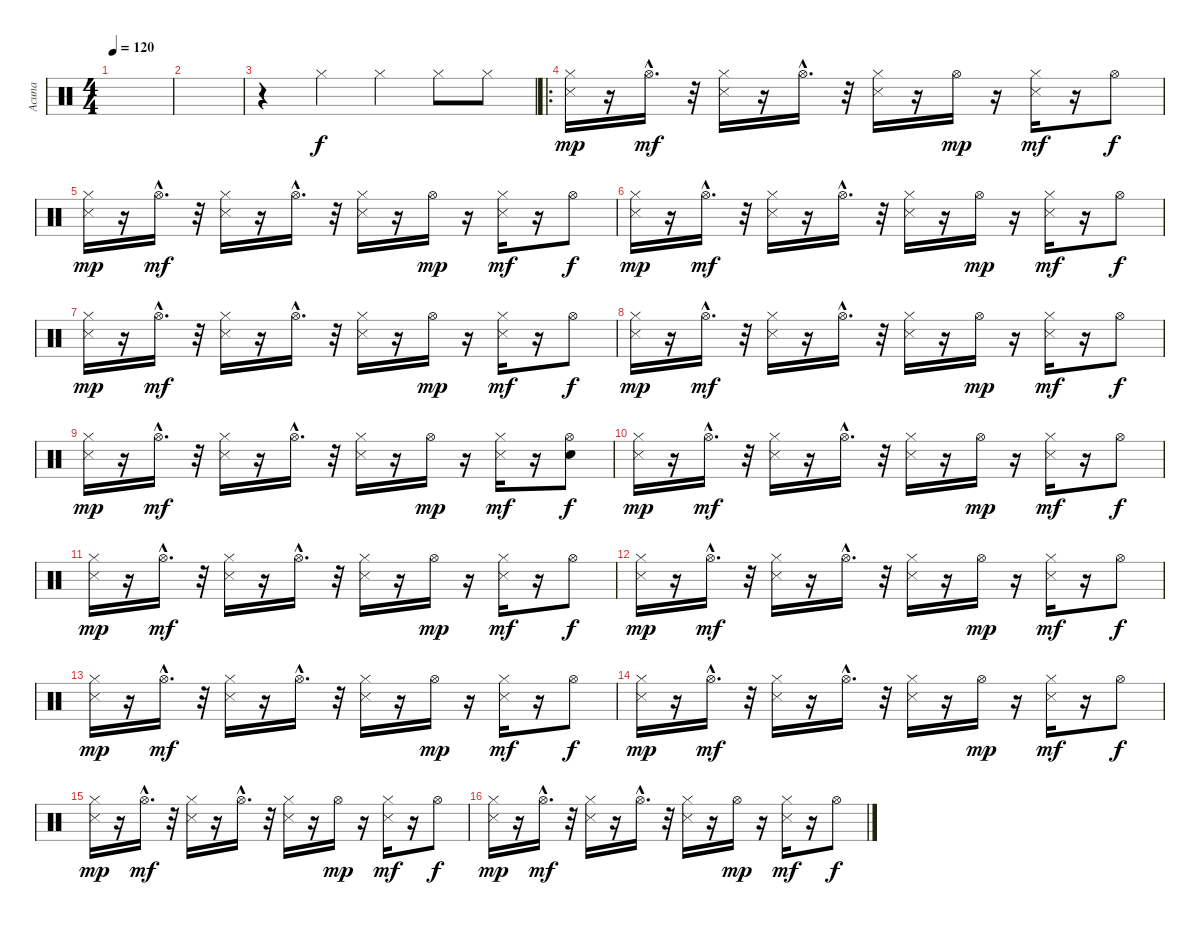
\track ("Acuna" "Acuna") {instrument percussion}
\staff {score}
\articulation defaults
\ts (4 4)
\tempo 120
\clef neutral
\ks c
|
|
r.4 "Hi-Hat (closed)".4 "Hi-Hat (closed)".4 "Hi-Hat (closed)".8 "Hi-Hat (closed)".8 |
\ro
("Snare (side stick) 3" "Hi-Hat (closed)").16{dy mp} r.16 "Hi-Hat (open)"{hac}.16{d dy mf} r.32 ("Snare (side stick) 3" "Hi-Hat (closed)").16 r.16 "Hi-Hat (open)"{hac}.16{d} r.32 ("Snare (side stick) 3" "Hi-Hat (closed)").16 r.16 "Hi-Hat (open)".16{dy mp} r.16 ("Snare (side stick) 3" "Hi-Hat (closed)").16{dy mf} r.16 "Hi-Hat (open)".8{dy f} |
("Snare (side stick) 3" "Hi-Hat (closed)").16{dy mp} r.16 "Hi-Hat (open)"{hac}.16{d dy mf} r.32 ("Snare (side stick) 3" "Hi-Hat (closed)").16 r.16 "Hi-Hat (open)"{hac}.16{d} r.32 ("Snare (side stick) 3" "Hi-Hat (closed)").16 r.16 "Hi-Hat (open)".16{dy mp} r.16 ("Snare (side stick) 3" "Hi-Hat (closed)").16{dy mf} r.16 "Hi-Hat (open)".8{dy f} |
("Snare (side stick) 3" "Hi-Hat (closed)").16{dy mp} r.16 "Hi-Hat (open)"{hac}.16{d dy mf} r.32 ("Snare (side stick) 3" "Hi-Hat (closed)").16 r.16 "Hi-Hat (open)"{hac}.16{d} r.32 ("Snare (side stick) 3" "Hi-Hat (closed)").16 r.16 "Hi-Hat (open)".16{dy mp} r.16 ("Snare (side stick) 3" "Hi-Hat (closed)").16{dy mf} r.16 "Hi-Hat (open)".8{dy f} |
("Snare (side stick) 3" "Hi-Hat (closed)").16{dy mp} r.16 "Hi-Hat (open)"{hac}.16{d dy mf} r.32 ("Snare (side stick) 3" "Hi-Hat (closed)").16 r.16 "Hi-Hat (open)"{hac}.16{d} r.32 ("Snare (side stick) 3" "Hi-Hat (closed)").16 r.16 "Hi-Hat (open)".16{dy mp} r.16 ("Snare (side stick) 3" "Hi-Hat (closed)").16{dy mf} r.16 "Hi-Hat (open)".8{dy f} |
("Snare (side stick) 3" "Hi-Hat (closed)").16{dy mp} r.16 "Hi-Hat (open)"{hac}.16{d dy mf} r.32 ("Snare (side stick) 3" "Hi-Hat (closed)").16 r.16 "Hi-Hat (open)"{hac}.16{d} r.32 ("Snare (side stick) 3" "Hi-Hat (closed)").16 r.16 "Hi-Hat (open)".16{dy mp} r.16 ("Snare (side stick) 3" "Hi-Hat (closed)").16{dy mf} r.16 "Hi-Hat (open)".8{dy f} |
("Snare (side stick) 3" "Hi-Hat (closed)").16{dy mp} r.16 "Hi-Hat (open)"{hac}.16{d dy mf} r.32 ("Snare (side stick) 3" "Hi-Hat (closed)").16 r.16 "Hi-Hat (open)"{hac}.16{d} r.32 ("Snare (side stick) 3" "Hi-Hat (closed)").16 r.16 "Hi-Hat (open)".16{dy mp} r.16 ("Snare (side stick) 3" "Hi-Hat (closed)").16{dy mf} r.16 ("Hi-Hat (open)" "Snare (hit)").8{dy f} |
("Snare (side stick) 3" "Hi-Hat (closed)").16{dy mp} r.16 "Hi-Hat (open)"{hac}.16{d dy mf} r.32 ("Snare (side stick) 3" "Hi-Hat (closed)").16 r.16 "Hi-Hat (open)"{hac}.16{d} r.32 ("Snare (side stick) 3" "Hi-Hat (closed)").16 r.16 "Hi-Hat (open)".16{dy mp} r.16 ("Snare (side stick) 3" "Hi-Hat (closed)").16{dy mf} r.16 "Hi-Hat (open)".8{dy f} |
("Snare (side stick) 3" "Hi-Hat (closed)").16{dy mp} r.16 "Hi-Hat (open)"{hac}.16{d dy mf} r.32 ("Snare (side stick) 3" "Hi-Hat (closed)").16 r.16 "Hi-Hat (open)"{hac}.16{d} r.32 ("Snare (side stick) 3" "Hi-Hat (closed)").16 r.16 "Hi-Hat (open)".16{dy mp} r.16 ("Snare (side stick) 3" "Hi-Hat (closed)").16{dy mf} r.16 "Hi-Hat (open)".8{dy f} |
("Snare (side stick) 3" "Hi-Hat (closed)").16{dy mp} r.16 "Hi-Hat (open)"{hac}.16{d dy mf} r.32 ("Snare (side stick) 3" "Hi-Hat (closed)").16 r.16 "Hi-Hat (open)"{hac}.16{d} r.32 ("Snare (side stick) 3" "Hi-Hat (closed)").16 r.16 "Hi-Hat (open)".16{dy mp} r.16 ("Snare (side stick) 3" "Hi-Hat (closed)").16{dy mf} r.16 "Hi-Hat (open)".8{dy f} |
("Snare (side stick) 3" "Hi-Hat (closed)").16{dy mp} r.16 "Hi-Hat (open)"{hac}.16{d dy mf} r.32 ("Snare (side stick) 3" "Hi-Hat (closed)").16 r.16 "Hi-Hat (open)"{hac}.16{d} r.32 ("Snare (side stick) 3" "Hi-Hat (closed)").16 r.16 "Hi-Hat (open)".16{dy mp} r.16 ("Snare (side stick) 3" "Hi-Hat (closed)").16{dy mf} r.16 "Hi-Hat (open)".8{dy f} |
("Snare (side stick) 3" "Hi-Hat (closed)").16{dy mp} r.16 "Hi-Hat (open)"{hac}.16{d dy mf} r.32 ("Snare (side stick) 3" "Hi-Hat (closed)").16 r.16 "Hi-Hat (open)"{hac}.16{d} r.32 ("Snare (side stick) 3" "Hi-Hat (closed)").16 r.16 "Hi-Hat (open)".16{dy mp} r.16 ("Snare (side stick) 3" "Hi-Hat (closed)").16{dy mf} r.16 "Hi-Hat (open)".8{dy f} |
("Snare (side stick) 3" "Hi-Hat (closed)").16{dy mp} r.16 "Hi-Hat (open)"{hac}.16{d dy mf} r.32 ("Snare (side stick) 3" "Hi-Hat (closed)").16 r.16 "Hi-Hat (open)"{hac}.16{d} r.32 ("Snare (side stick) 3" "Hi-Hat (closed)").16 r.16 "Hi-Hat (open)".16{dy mp} r.16 ("Snare (side stick) 3" "Hi-Hat (closed)").16{dy mf} r.16 "Hi-Hat (open)".8{dy f} |
("Snare (side stick) 3" "Hi-Hat (closed)").16{dy mp} r.16 "Hi-Hat (open)"{hac}.16{d dy mf} r.32 ("Snare (side stick) 3" "Hi-Hat (closed)").16 r.16 "Hi-Hat (open)"{hac}.16{d} r.32 ("Snare (side stick) 3" "Hi-Hat (closed)").16 r.16 "Hi-Hat (open)".16{dy mp} r.16 ("Snare (side stick) 3" "Hi-Hat (closed)").16{dy mf} r.16 "Hi-Hat (open)".8{dy f}
